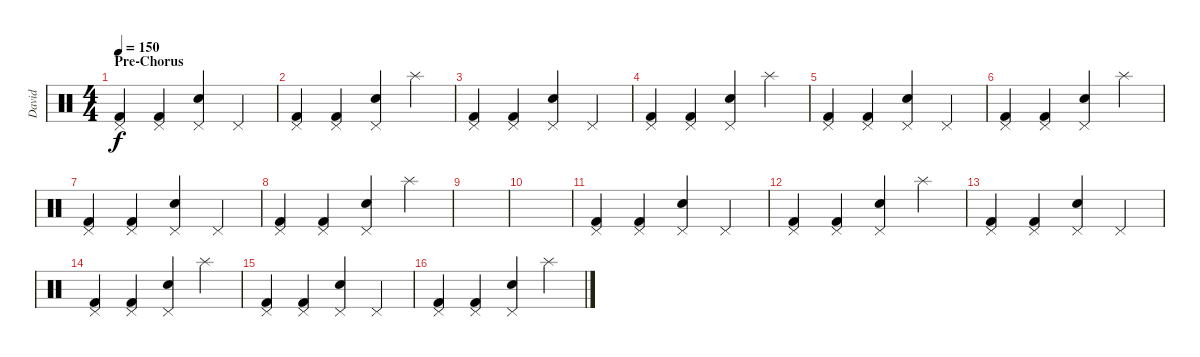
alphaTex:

\track ("David" "David") {instrument percussion}
\staff {score}
\articulation defaults
\ts (4 4)
\section ("" "Pre-Chorus")
\tempo 150
\clef neutral
\ks c
("Pedal Hi-Hat (hit)" "Kick (hit) 2").4{dy f} ("Pedal Hi-Hat (hit)" "Kick (hit) 2").4 ("Pedal Hi-Hat (hit)" "Hand Clap (hit)").4 "Pedal Hi-Hat (hit)".4 |
("Pedal Hi-Hat (hit)" "Kick (hit) 2").4 ("Pedal Hi-Hat (hit)" "Kick (hit) 2").4 ("Pedal Hi-Hat (hit)" "Hand Clap (hit)").4 "Splash (hit)".4 |
("Pedal Hi-Hat (hit)" "Kick (hit) 2").4 ("Pedal Hi-Hat (hit)" "Kick (hit) 2").4 ("Pedal Hi-Hat (hit)" "Hand Clap (hit)").4 "Pedal Hi-Hat (hit)".4 |
("Pedal Hi-Hat (hit)" "Kick (hit) 2").4 ("Pedal Hi-Hat (hit)" "Kick (hit) 2").4 ("Pedal Hi-Hat (hit)" "Hand Clap (hit)").4 "Splash (hit)".4 |
("Pedal Hi-Hat (hit)" "Kick (hit) 2").4 ("Pedal Hi-Hat (hit)" "Kick (hit) 2").4 ("Pedal Hi-Hat (hit)" "Hand Clap (hit)").4 "Pedal Hi-Hat (hit)".4 |
("Pedal Hi-Hat (hit)" "Kick (hit) 2").4 ("Pedal Hi-Hat (hit)" "Kick (hit) 2").4 ("Pedal Hi-Hat (hit)" "Hand Clap (hit)").4 "Splash (hit)".4 |
("Pedal Hi-Hat (hit)" "Kick (hit) 2").4 ("Pedal Hi-Hat (hit)" "Kick (hit) 2").4 ("Pedal Hi-Hat (hit)" "Hand Clap (hit)").4 "Pedal Hi-Hat (hit)".4 |
("Pedal Hi-Hat (hit)" "Kick (hit) 2").4 ("Pedal Hi-Hat (hit)" "Kick (hit) 2").4 ("Pedal Hi-Hat (hit)" "Hand Clap (hit)").4 "Splash (hit)".4 |
|
|
("Pedal Hi-Hat (hit)" "Kick (hit) 2").4 ("Pedal Hi-Hat (hit)" "Kick (hit) 2").4 ("Pedal Hi-Hat (hit)" "Hand Clap (hit)").4 "Pedal Hi-Hat (hit)".4 |
("Pedal Hi-Hat (hit)" "Kick (hit) 2").4 ("Pedal Hi-Hat (hit)" "Kick (hit) 2").4 ("Pedal Hi-Hat (hit)" "Hand Clap (hit)").4 "Splash (hit)".4 |
("Pedal Hi-Hat (hit)" "Kick (hit) 2").4 ("Pedal Hi-Hat (hit)" "Kick (hit) 2").4 ("Pedal Hi-Hat (hit)" "Hand Clap (hit)").4 "Pedal Hi-Hat (hit)".4 |
("Pedal Hi-Hat (hit)" "Kick (hit) 2").4 ("Pedal Hi-Hat (hit)" "Kick (hit) 2").4 ("Pedal Hi-Hat (hit)" "Hand Clap (hit)").4 "Splash (hit)".4 |
("Pedal Hi-Hat (hit)" "Kick (hit) 2").4 ("Pedal Hi-Hat (hit)" "Kick (hit) 2").4 ("Pedal Hi-Hat (hit)" "Hand Clap (hit)").4 "Pedal Hi-Hat (hit)".4 |
("Pedal Hi-Hat (hit)" "Kick (hit) 2").4 ("Pedal Hi-Hat (hit)" "Kick (hit) 2").4 ("Pedal Hi-Hat (hit)" "Hand Clap (hit)").4 "Splash (hit)".4
